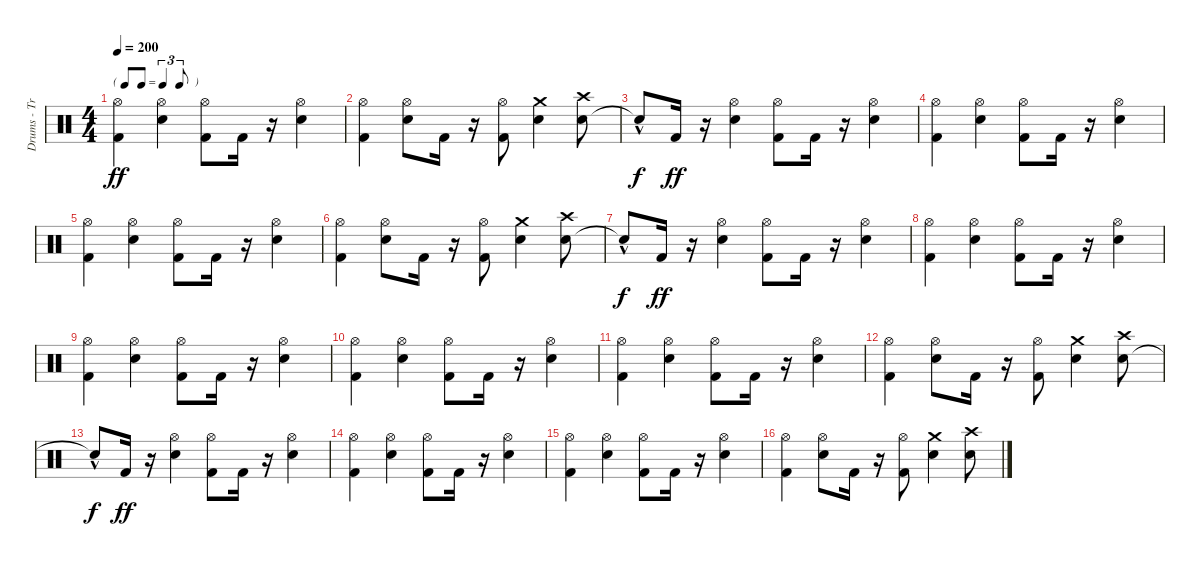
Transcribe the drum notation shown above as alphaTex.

\track ("Drums - Travis" "Drums - Tr") {instrument percussion}
\staff {score}
\articulation defaults
\ts (4 4)
\tf triplet8th
\tempo 200
\clef neutral
\ks c
("Kick (hit) 2" "Hi-Hat (open)").4{dy ff} ("Electric Snare (hit)" "Hi-Hat (open)").4 ("Kick (hit) 2" "Hi-Hat (open)").8 "Kick (hit) 2".16 r.16 ("Electric Snare (hit)" "Hi-Hat (open)").4 |
("Kick (hit) 2" "Hi-Hat (open)").4 ("Electric Snare (hit)" "Hi-Hat (open)").8 "Kick (hit) 2".16 r.16 ("Kick (hit) 2" "Hi-Hat (open)").8 ("Electric Snare (hit)" "Crash medium (hit)").4 ("Electric Snare (hit)" "Crash high (hit)").8 |
"Snare (hit)"{hac t}.8{dy f} "Kick (hit) 2".16{dy ff} r.16 ("Electric Snare (hit)" "Hi-Hat (open)").4 ("Kick (hit) 2" "Hi-Hat (open)").8 "Kick (hit) 2".16 r.16 ("Electric Snare (hit)" "Hi-Hat (open)").4 |
("Kick (hit) 2" "Hi-Hat (open)").4 ("Electric Snare (hit)" "Hi-Hat (open)").4 ("Kick (hit) 2" "Hi-Hat (open)").8 "Kick (hit) 2".16 r.16 ("Electric Snare (hit)" "Hi-Hat (open)").4 |
("Kick (hit) 2" "Hi-Hat (open)").4 ("Electric Snare (hit)" "Hi-Hat (open)").4 ("Kick (hit) 2" "Hi-Hat (open)").8 "Kick (hit) 2".16 r.16 ("Electric Snare (hit)" "Hi-Hat (open)").4 |
("Kick (hit) 2" "Hi-Hat (open)").4 ("Electric Snare (hit)" "Hi-Hat (open)").8 "Kick (hit) 2".16 r.16 ("Kick (hit) 2" "Hi-Hat (open)").8 ("Electric Snare (hit)" "Crash medium (hit)").4 ("Electric Snare (hit)" "Crash high (hit)").8 |
"Snare (hit)"{hac t}.8{dy f} "Kick (hit) 2".16{dy ff} r.16 ("Electric Snare (hit)" "Hi-Hat (open)").4 ("Kick (hit) 2" "Hi-Hat (open)").8 "Kick (hit) 2".16 r.16 ("Electric Snare (hit)" "Hi-Hat (open)").4 |
("Kick (hit) 2" "Hi-Hat (open)").4 ("Electric Snare (hit)" "Hi-Hat (open)").4 ("Kick (hit) 2" "Hi-Hat (open)").8 "Kick (hit) 2".16 r.16 ("Electric Snare (hit)" "Hi-Hat (open)").4 |
("Kick (hit) 2" "Hi-Hat (open)").4 ("Electric Snare (hit)" "Hi-Hat (open)").4 ("Kick (hit) 2" "Hi-Hat (open)").8 "Kick (hit) 2".16 r.16 ("Electric Snare (hit)" "Hi-Hat (open)").4 |
("Hi-Hat (open)" "Kick (hit) 2").4 ("Hi-Hat (open)" "Electric Snare (hit)").4 ("Hi-Hat (open)" "Kick (hit) 2").8 "Kick (hit) 2".16 r.16 ("Hi-Hat (open)" "Electric Snare (hit)").4 |
("Kick (hit) 2" "Hi-Hat (open)").4 ("Electric Snare (hit)" "Hi-Hat (open)").4 ("Kick (hit) 2" "Hi-Hat (open)").8 "Kick (hit) 2".16 r.16 ("Electric Snare (hit)" "Hi-Hat (open)").4 |
("Kick (hit) 2" "Hi-Hat (open)").4 ("Electric Snare (hit)" "Hi-Hat (open)").8 "Kick (hit) 2".16 r.16 ("Kick (hit) 2" "Hi-Hat (open)").8 ("Electric Snare (hit)" "Crash medium (hit)").4 ("Electric Snare (hit)" "Crash high (hit)").8 |
"Snare (hit)"{hac t}.8{dy f} "Kick (hit) 2".16{dy ff} r.16 ("Electric Snare (hit)" "Hi-Hat (open)").4 ("Kick (hit) 2" "Hi-Hat (open)").8 "Kick (hit) 2".16 r.16 ("Electric Snare (hit)" "Hi-Hat (open)").4 |
("Kick (hit) 2" "Hi-Hat (open)").4 ("Electric Snare (hit)" "Hi-Hat (open)").4 ("Kick (hit) 2" "Hi-Hat (open)").8 "Kick (hit) 2".16 r.16 ("Electric Snare (hit)" "Hi-Hat (open)").4 |
("Kick (hit) 2" "Hi-Hat (open)").4 ("Electric Snare (hit)" "Hi-Hat (open)").4 ("Kick (hit) 2" "Hi-Hat (open)").8 "Kick (hit) 2".16 r.16 ("Electric Snare (hit)" "Hi-Hat (open)").4 |
("Kick (hit) 2" "Hi-Hat (open)").4 ("Electric Snare (hit)" "Hi-Hat (open)").8 "Kick (hit) 2".16 r.16 ("Kick (hit) 2" "Hi-Hat (open)").8 ("Electric Snare (hit)" "Crash medium (hit)").4 ("Electric Snare (hit)" "Crash high (hit)").8
